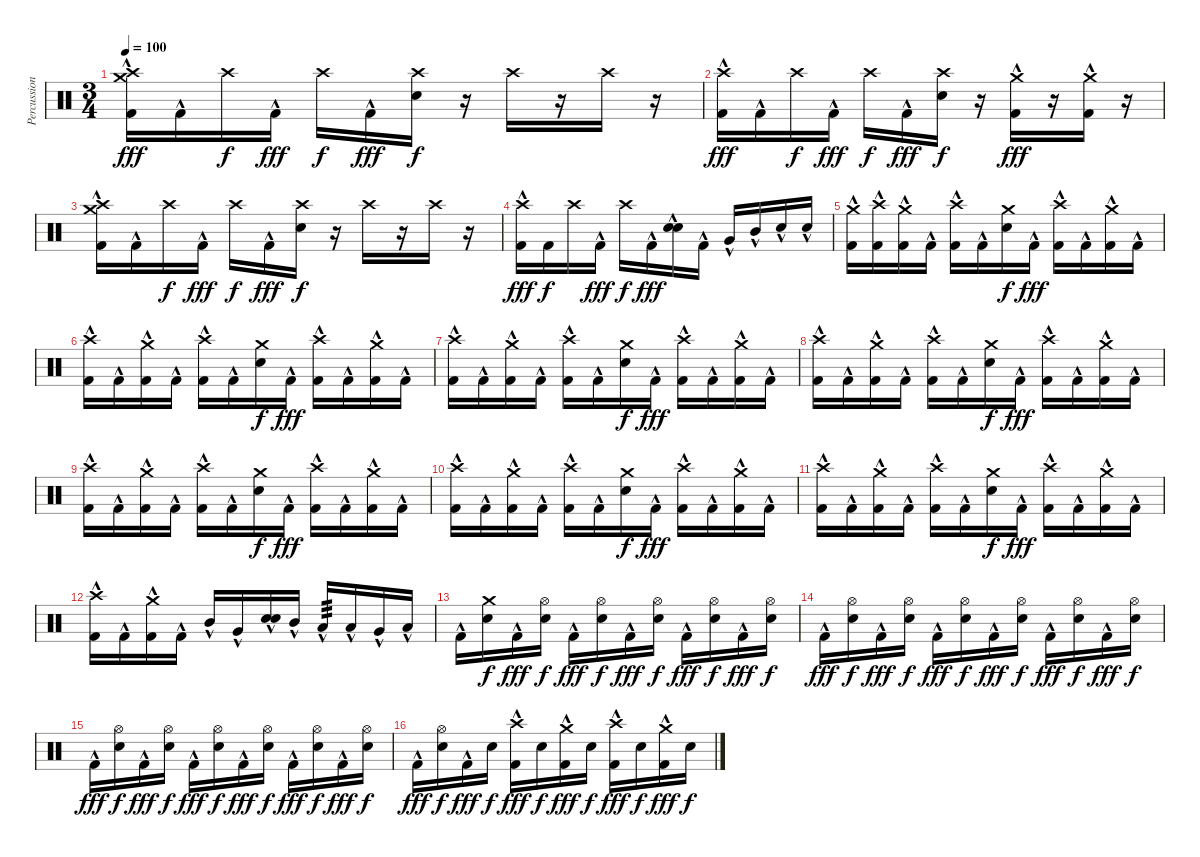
\track ("Percussion" "Percussion") {instrument percussion}
\staff {score}
\articulation defaults
\ts (3 4)
\tempo 100
\clef neutral
\ks c
("Kick (hit) 2"{hac} "Crash high (hit)" "Crash medium (hit)").16{dy fff} "Kick (hit) 2"{hac}.16 "Crash high (hit)".16{dy f} "Kick (hit) 2"{hac}.16{dy fff} "Crash high (hit)".16{dy f} "Kick (hit) 2"{hac}.16{dy fff} ("Electric Snare (hit)" "Crash high (hit)").16{dy f} r.16 "Crash high (hit)".16 r.16 "Crash high (hit)".16 r.16 |
("Kick (hit) 2"{hac} "Crash high (hit)").16{dy fff} "Kick (hit) 2"{hac}.16 "Crash high (hit)".16{dy f} "Kick (hit) 2"{hac}.16{dy fff} "Crash high (hit)".16{dy f} "Kick (hit) 2"{hac}.16{dy fff} ("Electric Snare (hit)" "Crash high (hit)").16{dy f} r.16 ("Kick (hit) 2"{hac} "Crash medium (hit)").16{dy fff} r.16 ("Kick (hit) 2"{hac} "Crash medium (hit)").16 r.16 |
("Kick (hit) 2"{hac} "Crash high (hit)" "Crash medium (hit)").16 "Kick (hit) 2"{hac}.16 "Crash high (hit)".16{dy f} "Kick (hit) 2"{hac}.16{dy fff} "Crash high (hit)".16{dy f} "Kick (hit) 2"{hac}.16{dy fff} ("Electric Snare (hit)" "Crash high (hit)").16{dy f} r.16 "Crash high (hit)".16 r.16 "Crash high (hit)".16 r.16 |
("Kick (hit) 2"{hac} "Crash high (hit)").16{dy fff} "Kick (hit) 2".16{dy f} "Crash high (hit)".16 "Kick (hit) 2"{hac}.16{dy fff} "Crash high (hit)".16{dy f} "Kick (hit) 2"{hac}.16{dy fff} ("Electric Snare (hit)"{hac} "Electric Snare (hit)"{hac}).16 "Kick (hit) 2"{hac}.16 "Very Low Tom (hit)"{hac}.16 "Mid Tom (hit)"{hac}.16 "Electric Snare (hit)"{hac}.16 "Electric Snare (hit)"{hac}.16 |
("Kick (hit) 2"{hac} "Crash medium (hit)"{hac}).16 ("Kick (hit) 2"{hac} "Crash high (hit)").16 ("Kick (hit) 2"{hac} "Crash medium (hit)").16 "Kick (hit) 2"{hac}.16 ("Kick (hit) 2"{hac} "Crash high (hit)").16 "Kick (hit) 2"{hac}.16 ("Electric Snare (hit)" "Crash medium (hit)").16{dy f} "Kick (hit) 2"{hac}.16{dy fff} ("Kick (hit) 2"{hac} "Crash high (hit)").16 "Kick (hit) 2"{hac}.16 ("Kick (hit) 2"{hac} "Crash medium (hit)").16 "Kick (hit) 2"{hac}.16 |
("Kick (hit) 2"{hac} "Crash high (hit)"{hac}).16 "Kick (hit) 2"{hac}.16 ("Kick (hit) 2"{hac} "Crash medium (hit)").16 "Kick (hit) 2"{hac}.16 ("Kick (hit) 2"{hac} "Crash high (hit)").16 "Kick (hit) 2"{hac}.16 ("Electric Snare (hit)" "Crash medium (hit)").16{dy f} "Kick (hit) 2"{hac}.16{dy fff} ("Kick (hit) 2"{hac} "Crash high (hit)").16 "Kick (hit) 2"{hac}.16 ("Kick (hit) 2"{hac} "Crash medium (hit)").16 "Kick (hit) 2"{hac}.16 |
("Kick (hit) 2"{hac} "Crash high (hit)"{hac}).16 "Kick (hit) 2"{hac}.16 ("Kick (hit) 2"{hac} "Crash medium (hit)").16 "Kick (hit) 2"{hac}.16 ("Kick (hit) 2"{hac} "Crash high (hit)").16 "Kick (hit) 2"{hac}.16 ("Electric Snare (hit)" "Crash medium (hit)").16{dy f} "Kick (hit) 2"{hac}.16{dy fff} ("Kick (hit) 2"{hac} "Crash high (hit)").16 "Kick (hit) 2"{hac}.16 ("Kick (hit) 2"{hac} "Crash medium (hit)").16 "Kick (hit) 2"{hac}.16 |
("Kick (hit) 2"{hac} "Crash high (hit)"{hac}).16 "Kick (hit) 2"{hac}.16 ("Kick (hit) 2"{hac} "Crash medium (hit)").16 "Kick (hit) 2"{hac}.16 ("Kick (hit) 2"{hac} "Crash high (hit)").16 "Kick (hit) 2"{hac}.16 ("Electric Snare (hit)" "Crash medium (hit)").16{dy f} "Kick (hit) 2"{hac}.16{dy fff} ("Kick (hit) 2"{hac} "Crash high (hit)").16 "Kick (hit) 2"{hac}.16 ("Kick (hit) 2"{hac} "Crash medium (hit)").16 "Kick (hit) 2"{hac}.16 |
("Kick (hit) 2"{hac} "Crash high (hit)"{hac}).16 "Kick (hit) 2"{hac}.16 ("Kick (hit) 2"{hac} "Crash medium (hit)").16 "Kick (hit) 2"{hac}.16 ("Kick (hit) 2"{hac} "Crash high (hit)").16 "Kick (hit) 2"{hac}.16 ("Electric Snare (hit)" "Crash medium (hit)").16{dy f} "Kick (hit) 2"{hac}.16{dy fff} ("Kick (hit) 2"{hac} "Crash high (hit)").16 "Kick (hit) 2"{hac}.16 ("Kick (hit) 2"{hac} "Crash medium (hit)").16 "Kick (hit) 2"{hac}.16 |
("Kick (hit) 2"{hac} "Crash high (hit)"{hac}).16 "Kick (hit) 2"{hac}.16 ("Kick (hit) 2"{hac} "Crash medium (hit)").16 "Kick (hit) 2"{hac}.16 ("Kick (hit) 2"{hac} "Crash high (hit)").16 "Kick (hit) 2"{hac}.16 ("Electric Snare (hit)" "Crash medium (hit)").16{dy f} "Kick (hit) 2"{hac}.16{dy fff} ("Kick (hit) 2"{hac} "Crash high (hit)").16 "Kick (hit) 2"{hac}.16 ("Kick (hit) 2"{hac} "Crash medium (hit)").16 "Kick (hit) 2"{hac}.16 |
("Kick (hit) 2"{hac} "Crash high (hit)"{hac}).16 "Kick (hit) 2"{hac}.16 ("Kick (hit) 2"{hac} "Crash medium (hit)").16 "Kick (hit) 2"{hac}.16 ("Kick (hit) 2"{hac} "Crash high (hit)").16 "Kick (hit) 2"{hac}.16 ("Electric Snare (hit)" "Crash medium (hit)").16{dy f} "Kick (hit) 2"{hac}.16{dy fff} ("Kick (hit) 2"{hac} "Crash high (hit)").16 "Kick (hit) 2"{hac}.16 ("Kick (hit) 2"{hac} "Crash medium (hit)").16 "Kick (hit) 2"{hac}.16 |
("Kick (hit) 2"{hac} "Crash high (hit)"{hac}).16 "Kick (hit) 2"{hac}.16 ("Kick (hit) 2"{hac} "Crash medium (hit)").16 "Kick (hit) 2"{hac}.16 "Mid Tom (hit)"{hac}.16 "Very Low Tom (hit)"{hac}.16 ("Electric Snare (hit)"{hac} "Electric Snare (hit)"{hac}).16 "Mid Tom (hit)"{hac}.16 "Low Tom (hit)"{hac}.16{tp 3} "Low Tom (hit)"{hac}.16 "Very Low Tom (hit)"{hac}.16 "Low Floor Tom (hit)"{hac}.16 |
"Kick (hit) 2"{hac}.16 ("Electric Snare (hit)" "Crash medium (hit)").16{dy f} "Kick (hit) 2"{hac}.16{dy fff} ("Electric Snare (hit)" "Hi-Hat (open)").16{dy f} "Kick (hit) 2"{hac}.16{dy fff} ("Electric Snare (hit)" "Hi-Hat (open)").16{dy f} "Kick (hit) 2"{hac}.16{dy fff} ("Electric Snare (hit)" "Hi-Hat (open)").16{dy f} "Kick (hit) 2"{hac}.16{dy fff} ("Electric Snare (hit)" "Hi-Hat (open)").16{dy f} "Kick (hit) 2"{hac}.16{dy fff} ("Electric Snare (hit)" "Hi-Hat (open)").16{dy f} |
"Kick (hit) 2"{hac}.16{dy fff} ("Electric Snare (hit)" "Hi-Hat (open)").16{dy f} "Kick (hit) 2"{hac}.16{dy fff} ("Electric Snare (hit)" "Hi-Hat (open)").16{dy f} "Kick (hit) 2"{hac}.16{dy fff} ("Electric Snare (hit)" "Hi-Hat (open)").16{dy f} "Kick (hit) 2"{hac}.16{dy fff} ("Electric Snare (hit)" "Hi-Hat (open)").16{dy f} "Kick (hit) 2"{hac}.16{dy fff} ("Electric Snare (hit)" "Hi-Hat (open)").16{dy f} "Kick (hit) 2"{hac}.16{dy fff} ("Electric Snare (hit)" "Hi-Hat (open)").16{dy f} |
"Kick (hit) 2"{hac}.16{dy fff} ("Electric Snare (hit)" "Hi-Hat (open)").16{dy f} "Kick (hit) 2"{hac}.16{dy fff} ("Electric Snare (hit)" "Hi-Hat (open)").16{dy f} "Kick (hit) 2"{hac}.16{dy fff} ("Electric Snare (hit)" "Hi-Hat (open)").16{dy f} "Kick (hit) 2"{hac}.16{dy fff} ("Electric Snare (hit)" "Hi-Hat (open)").16{dy f} "Kick (hit) 2"{hac}.16{dy fff} ("Electric Snare (hit)" "Hi-Hat (open)").16{dy f} "Kick (hit) 2"{hac}.16{dy fff} ("Electric Snare (hit)" "Hi-Hat (open)").16{dy f} |
"Kick (hit) 2"{hac}.16{dy fff} ("Electric Snare (hit)" "Hi-Hat (open)").16{dy f} "Kick (hit) 2"{hac}.16{dy fff} "Electric Snare (hit)".16{dy f} ("Kick (hit) 2"{hac} "Crash high (hit)").16{dy fff} "Electric Snare (hit)".16{dy f} ("Kick (hit) 2"{hac} "Crash medium (hit)").16{dy fff} "Electric Snare (hit)".16{dy f} ("Kick (hit) 2"{hac} "Crash high (hit)").16{dy fff} "Electric Snare (hit)".16{dy f} ("Kick (hit) 2"{hac} "Crash medium (hit)").16{dy fff} "Electric Snare (hit)".16{dy f}
